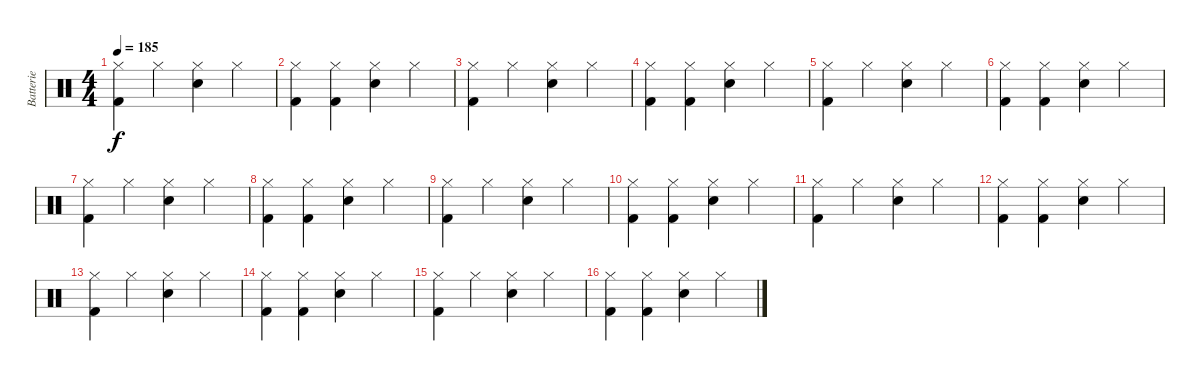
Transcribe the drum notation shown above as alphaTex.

\track ("Batterie" "Batterie") {instrument percussion}
\staff {score}
\articulation defaults
\ts (4 4)
\tempo 185
\clef neutral
\ks c
("Hi-Hat (closed)" "Kick (hit) 2").4{dy f} "Hi-Hat (closed)".4 ("Hi-Hat (closed)" "Electric Snare (hit)").4 "Hi-Hat (closed)".4 |
("Hi-Hat (closed)" "Kick (hit) 2").4 ("Hi-Hat (closed)" "Kick (hit) 2").4 ("Hi-Hat (closed)" "Electric Snare (hit)").4 "Hi-Hat (closed)".4 |
("Hi-Hat (closed)" "Kick (hit) 2").4 "Hi-Hat (closed)".4 ("Hi-Hat (closed)" "Electric Snare (hit)").4 "Hi-Hat (closed)".4 |
("Hi-Hat (closed)" "Kick (hit) 2").4 ("Hi-Hat (closed)" "Kick (hit) 2").4 ("Hi-Hat (closed)" "Electric Snare (hit)").4 "Hi-Hat (closed)".4 |
("Hi-Hat (closed)" "Kick (hit) 2").4 "Hi-Hat (closed)".4 ("Hi-Hat (closed)" "Electric Snare (hit)").4 "Hi-Hat (closed)".4 |
("Hi-Hat (closed)" "Kick (hit) 2").4 ("Hi-Hat (closed)" "Kick (hit) 2").4 ("Hi-Hat (closed)" "Electric Snare (hit)").4 "Hi-Hat (closed)".4 |
("Hi-Hat (closed)" "Kick (hit) 2").4 "Hi-Hat (closed)".4 ("Hi-Hat (closed)" "Electric Snare (hit)").4 "Hi-Hat (closed)".4 |
("Hi-Hat (closed)" "Kick (hit) 2").4 ("Hi-Hat (closed)" "Kick (hit) 2").4 ("Hi-Hat (closed)" "Electric Snare (hit)").4 "Hi-Hat (closed)".4 |
("Hi-Hat (closed)" "Kick (hit) 2").4 "Hi-Hat (closed)".4 ("Hi-Hat (closed)" "Electric Snare (hit)").4 "Hi-Hat (closed)".4 |
("Hi-Hat (closed)" "Kick (hit) 2").4 ("Hi-Hat (closed)" "Kick (hit) 2").4 ("Hi-Hat (closed)" "Electric Snare (hit)").4 "Hi-Hat (closed)".4 |
("Hi-Hat (closed)" "Kick (hit) 2").4 "Hi-Hat (closed)".4 ("Hi-Hat (closed)" "Electric Snare (hit)").4 "Hi-Hat (closed)".4 |
("Hi-Hat (closed)" "Kick (hit) 2").4 ("Hi-Hat (closed)" "Kick (hit) 2").4 ("Hi-Hat (closed)" "Electric Snare (hit)").4 "Hi-Hat (closed)".4 |
("Hi-Hat (closed)" "Kick (hit) 2").4 "Hi-Hat (closed)".4 ("Hi-Hat (closed)" "Electric Snare (hit)").4 "Hi-Hat (closed)".4 |
("Hi-Hat (closed)" "Kick (hit) 2").4 ("Hi-Hat (closed)" "Kick (hit) 2").4 ("Hi-Hat (closed)" "Electric Snare (hit)").4 "Hi-Hat (closed)".4 |
("Hi-Hat (closed)" "Kick (hit) 2").4 "Hi-Hat (closed)".4 ("Hi-Hat (closed)" "Electric Snare (hit)").4 "Hi-Hat (closed)".4 |
("Hi-Hat (closed)" "Kick (hit) 2").4 ("Hi-Hat (closed)" "Kick (hit) 2").4 ("Hi-Hat (closed)" "Electric Snare (hit)").4 "Hi-Hat (closed)".4
